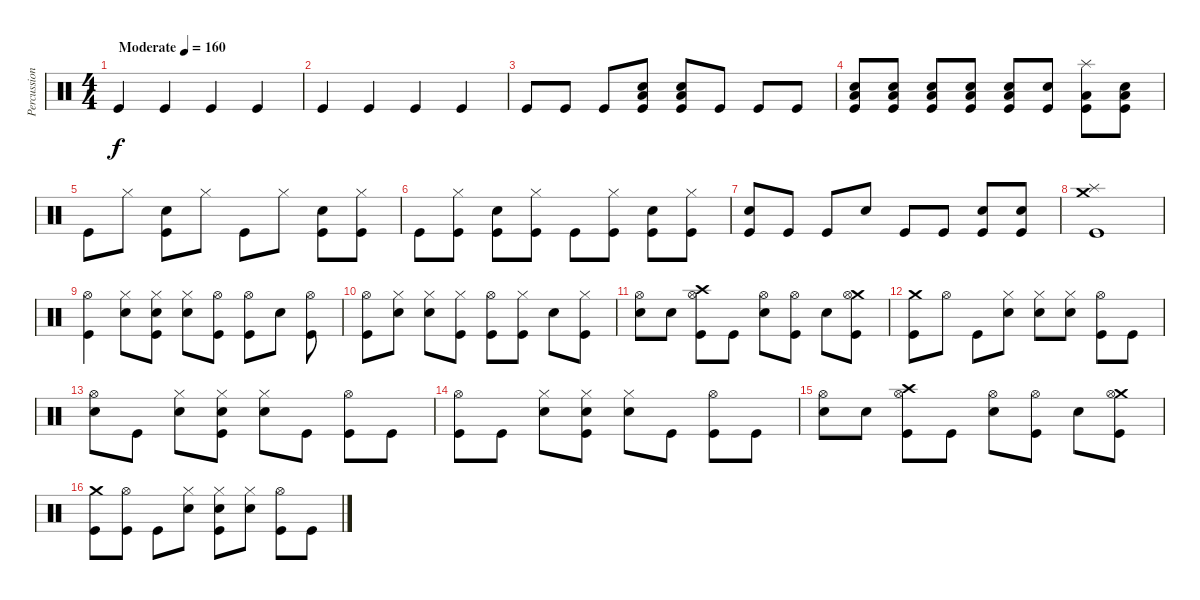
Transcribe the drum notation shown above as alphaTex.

\track ("Percussion" "Percussion") {instrument percussion}
\staff {score}
\articulation defaults
\ts (4 4)
\tempo (160 "Moderate")
\clef neutral
\ks c "Kick (hit)".4{dy f} "Kick (hit)".4 "Kick (hit)".4 "Kick (hit)".4
|
"Kick (hit)".4 "Kick (hit)".4 "Kick (hit)".4 "Kick (hit)".4 |
"Kick (hit)".8 "Kick (hit)".8 "Kick (hit)".8 ("Kick (hit)" "Snare (hit) 2" "Low Floor Tom (hit)").8 ("Kick (hit)" "Snare (hit) 2" "Low Floor Tom (hit)").8 "Kick (hit)".8 "Kick (hit)".8 "Kick (hit)".8 |
("Kick (hit)" "Snare (hit) 2" "Low Floor Tom (hit)").8 ("Kick (hit)" "Snare (hit) 2" "Low Floor Tom (hit)").8 ("Kick (hit)" "Snare (hit) 2" "Low Floor Tom (hit)").8 ("Kick (hit)" "Snare (hit) 2" "Low Floor Tom (hit)").8 ("Kick (hit)" "Snare (hit) 2" "Low Floor Tom (hit)").8 ("Kick (hit)" "Snare (hit) 2").8 ("Kick (hit)" "Low Floor Tom (hit)" "Splash (hit)").8 ("Kick (hit)" "Snare (hit) 2" "Low Floor Tom (hit)").8 |
"Kick (hit)".8 "Hi-Hat (closed)".8 ("Kick (hit)" "Snare (hit) 2").8 "Hi-Hat (closed)".8 "Kick (hit)".8 "Hi-Hat (closed)".8 ("Kick (hit)" "Snare (hit) 2").8 ("Kick (hit)" "Hi-Hat (closed)").8 |
"Kick (hit)".8 ("Kick (hit)" "Hi-Hat (closed)").8 ("Kick (hit)" "Snare (hit) 2").8 ("Kick (hit)" "Hi-Hat (closed)").8 "Kick (hit)".8 ("Kick (hit)" "Hi-Hat (closed)").8 ("Kick (hit)" "Snare (hit) 2").8 ("Kick (hit)" "Hi-Hat (closed)").8 |
("Kick (hit)" "Snare (hit) 2").8 "Kick (hit)".8 "Kick (hit)".8 "Snare (hit) 2".8 "Kick (hit)".8 "Kick (hit)".8 ("Kick (hit)" "Snare (hit) 2").8 ("Kick (hit)" "Snare (hit) 2").8 |
("Kick (hit)" "Splash (hit)" "Crash medium (hit)").1 |
("Kick (hit)" "Hi-Hat (open)").4 ("Hi-Hat (closed)" "Snare (hit) 2").8 ("Kick (hit)" "Hi-Hat (closed)" "Snare (hit) 2").8 ("Hi-Hat (closed)" "Snare (hit) 2").8 ("Hi-Hat (open)" "Kick (hit)").8 ("Kick (hit)" "Hi-Hat (open)").8 "Snare (hit) 2".8 ("Kick (hit)" "Hi-Hat (open)").8 |
("Kick (hit)" "Hi-Hat (open)").8 ("Hi-Hat (closed)" "Snare (hit) 2").8 ("Snare (hit) 2" "Hi-Hat (closed)").8 ("Kick (hit)" "Hi-Hat (closed)").8 ("Kick (hit)" "Hi-Hat (open)").8 ("Kick (hit)" "Hi-Hat (closed)").8 "Snare (hit) 2".8 ("Kick (hit)" "Hi-Hat (closed)").8 |
("Snare (hit) 2" "Hi-Hat (open)").8 "Snare (hit) 2".8 ("Kick (hit)" "Crash high (hit)" "Hi-Hat (open)").8 "Kick (hit)".8 ("Snare (hit) 2" "Hi-Hat (open)").8 ("Kick (hit)" "Hi-Hat (open)").8 "Snare (hit) 2".8 ("Kick (hit)" "Crash medium (hit)" "Hi-Hat (open)").8 |
("Kick (hit)" "Crash medium (hit)").8 "Hi-Hat (open)".8 "Kick (hit)".8 ("Snare (hit) 2" "Hi-Hat (closed)").8 ("Snare (hit) 2" "Hi-Hat (closed)").8 ("Snare (hit) 2" "Hi-Hat (closed)").8 ("Kick (hit)" "Hi-Hat (open)").8 "Kick (hit)".8 |
("Snare (hit) 2" "Hi-Hat (open)").8 "Kick (hit)".8 ("Snare (hit) 2" "Hi-Hat (closed)").8 ("Kick (hit)" "Snare (hit) 2" "Hi-Hat (closed)").8 ("Snare (hit) 2" "Hi-Hat (closed)").8 "Kick (hit)".8 ("Kick (hit)" "Hi-Hat (open)").8 "Kick (hit)".8 |
("Kick (hit)" "Hi-Hat (open)").8 "Kick (hit)".8 ("Snare (hit) 2" "Hi-Hat (closed)").8 ("Kick (hit)" "Snare (hit) 2" "Hi-Hat (closed)").8 ("Hi-Hat (closed)" "Snare (hit) 2").8 "Kick (hit)".8 ("Kick (hit)" "Hi-Hat (open)").8 "Kick (hit)".8 |
("Snare (hit) 2" "Hi-Hat (open)").8 "Snare (hit) 2".8 ("Kick (hit)" "Crash high (hit)" "Hi-Hat (open)").8 "Kick (hit)".8 ("Snare (hit) 2" "Hi-Hat (open)").8 ("Kick (hit)" "Hi-Hat (open)").8 "Snare (hit) 2".8 ("Kick (hit)" "Crash medium (hit)" "Hi-Hat (open)").8 |
("Kick (hit)" "Crash medium (hit)").8 ("Kick (hit)" "Hi-Hat (open)").8 "Kick (hit)".8 ("Snare (hit) 2" "Hi-Hat (closed)").8 ("Kick (hit)" "Snare (hit) 2" "Hi-Hat (closed)").8 ("Snare (hit) 2" "Hi-Hat (closed)").8 ("Kick (hit)" "Hi-Hat (open)").8 "Kick (hit)".8
